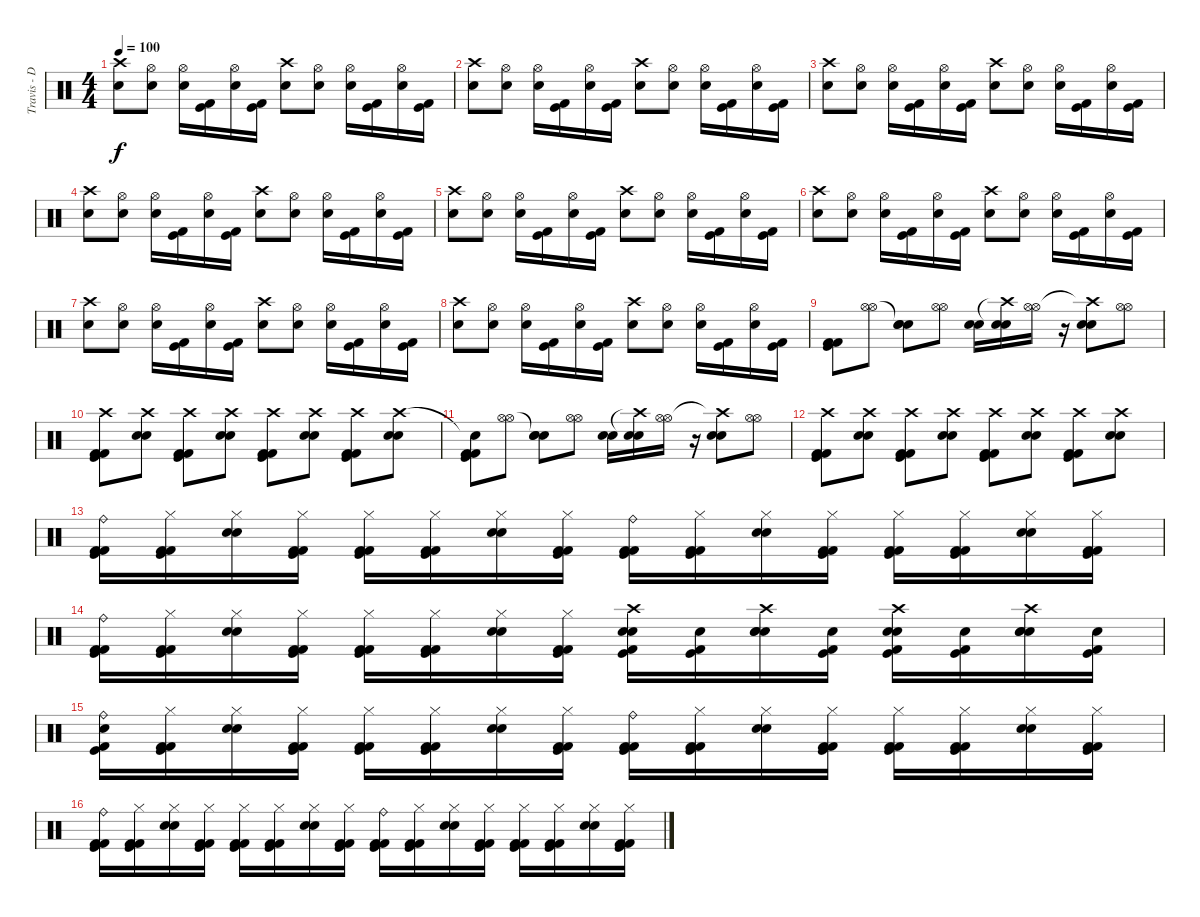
\track ("Travis - Drums {Tabbed by Peter B.}" "Travis - D") {instrument percussion}
\staff {score}
\articulation defaults
\ts (4 4)
\tempo 100
\clef neutral
\ks c
("Crash high (hit)" "Electric Snare (hit)").8{dy f} ("Hi-Hat (open)" "Electric Snare (hit)").8 ("Hi-Hat (open)" "Electric Snare (hit)").16 ("Kick (hit)" "Kick (hit) 2").16 ("Hi-Hat (open)" "Electric Snare (hit)").16 ("Kick (hit)" "Kick (hit) 2").16 ("Crash high (hit)" "Electric Snare (hit)").8 ("Hi-Hat (open)" "Electric Snare (hit)").8 ("Hi-Hat (open)" "Electric Snare (hit)").16 ("Kick (hit)" "Kick (hit) 2").16 ("Hi-Hat (open)" "Electric Snare (hit)").16 ("Kick (hit)" "Kick (hit) 2").16 |
("Crash high (hit)" "Electric Snare (hit)").8 ("Hi-Hat (open)" "Electric Snare (hit)").8 ("Hi-Hat (open)" "Electric Snare (hit)").16 ("Kick (hit)" "Kick (hit) 2").16 ("Hi-Hat (open)" "Electric Snare (hit)").16 ("Kick (hit)" "Kick (hit) 2").16 ("Crash high (hit)" "Electric Snare (hit)").8 ("Hi-Hat (open)" "Electric Snare (hit)").8 ("Hi-Hat (open)" "Electric Snare (hit)").16 ("Kick (hit)" "Kick (hit) 2").16 ("Hi-Hat (open)" "Electric Snare (hit)").16 ("Kick (hit)" "Kick (hit) 2").16 |
("Crash high (hit)" "Electric Snare (hit)").8 ("Hi-Hat (open)" "Electric Snare (hit)").8 ("Hi-Hat (open)" "Electric Snare (hit)").16 ("Kick (hit)" "Kick (hit) 2").16 ("Hi-Hat (open)" "Electric Snare (hit)").16 ("Kick (hit)" "Kick (hit) 2").16 ("Crash high (hit)" "Electric Snare (hit)").8 ("Hi-Hat (open)" "Electric Snare (hit)").8 ("Hi-Hat (open)" "Electric Snare (hit)").16 ("Kick (hit)" "Kick (hit) 2").16 ("Hi-Hat (open)" "Electric Snare (hit)").16 ("Kick (hit)" "Kick (hit) 2").16 |
("Crash high (hit)" "Electric Snare (hit)").8 ("Hi-Hat (open)" "Electric Snare (hit)").8 ("Hi-Hat (open)" "Electric Snare (hit)").16 ("Kick (hit)" "Kick (hit) 2").16 ("Hi-Hat (open)" "Electric Snare (hit)").16 ("Kick (hit)" "Kick (hit) 2").16 ("Crash high (hit)" "Electric Snare (hit)").8 ("Hi-Hat (open)" "Electric Snare (hit)").8 ("Hi-Hat (open)" "Electric Snare (hit)").16 ("Kick (hit)" "Kick (hit) 2").16 ("Hi-Hat (open)" "Electric Snare (hit)").16 ("Kick (hit)" "Kick (hit) 2").16 |
("Crash high (hit)" "Electric Snare (hit)").8 ("Hi-Hat (open)" "Electric Snare (hit)").8 ("Hi-Hat (open)" "Electric Snare (hit)").16 ("Kick (hit)" "Kick (hit) 2").16 ("Hi-Hat (open)" "Electric Snare (hit)").16 ("Kick (hit)" "Kick (hit) 2").16 ("Crash high (hit)" "Electric Snare (hit)").8 ("Hi-Hat (open)" "Electric Snare (hit)").8 ("Hi-Hat (open)" "Electric Snare (hit)").16 ("Kick (hit)" "Kick (hit) 2").16 ("Hi-Hat (open)" "Electric Snare (hit)").16 ("Kick (hit)" "Kick (hit) 2").16 |
("Crash high (hit)" "Electric Snare (hit)").8 ("Hi-Hat (open)" "Electric Snare (hit)").8 ("Hi-Hat (open)" "Electric Snare (hit)").16 ("Kick (hit)" "Kick (hit) 2").16 ("Hi-Hat (open)" "Electric Snare (hit)").16 ("Kick (hit)" "Kick (hit) 2").16 ("Crash high (hit)" "Electric Snare (hit)").8 ("Hi-Hat (open)" "Electric Snare (hit)").8 ("Hi-Hat (open)" "Electric Snare (hit)").16 ("Kick (hit)" "Kick (hit) 2").16 ("Hi-Hat (open)" "Electric Snare (hit)").16 ("Kick (hit)" "Kick (hit) 2").16 |
("Crash high (hit)" "Electric Snare (hit)").8 ("Hi-Hat (open)" "Electric Snare (hit)").8 ("Hi-Hat (open)" "Electric Snare (hit)").16 ("Kick (hit)" "Kick (hit) 2").16 ("Hi-Hat (open)" "Electric Snare (hit)").16 ("Kick (hit)" "Kick (hit) 2").16 ("Crash high (hit)" "Electric Snare (hit)").8 ("Hi-Hat (open)" "Electric Snare (hit)").8 ("Hi-Hat (open)" "Electric Snare (hit)").16 ("Kick (hit)" "Kick (hit) 2").16 ("Hi-Hat (open)" "Electric Snare (hit)").16 ("Kick (hit)" "Kick (hit) 2").16 |
("Crash high (hit)" "Electric Snare (hit)").8 ("Hi-Hat (open)" "Electric Snare (hit)").8 ("Hi-Hat (open)" "Electric Snare (hit)").16 ("Kick (hit)" "Kick (hit) 2").16 ("Hi-Hat (open)" "Electric Snare (hit)").16 ("Kick (hit)" "Kick (hit) 2").16 ("Crash high (hit)" "Electric Snare (hit)").8 ("Hi-Hat (open)" "Electric Snare (hit)").8 ("Hi-Hat (open)" "Electric Snare (hit)").16 ("Kick (hit)" "Kick (hit) 2").16 ("Hi-Hat (open)" "Electric Snare (hit)").16 ("Kick (hit)" "Kick (hit) 2").16 |
("Kick (hit) 2" "Kick (hit)" "Kick (hit) 2").8 ("Hi-Hat (open)" "Hi-Hat (open)").8 ("Snare (hit)"{t} "Snare (hit) 2" "Electric Snare (hit)").8 ("Hi-Hat (open)" "Hi-Hat (open)").8 ("Snare (hit) 2" "Electric Snare (hit)").16 ("Crash high (hit)"{t} "Snare (hit) 2" "Electric Snare (hit)").16 ("Hi-Hat (open)" "Hi-Hat (open)").16 r.16 ("Crash high (hit)"{t} "Snare (hit) 2" "Electric Snare (hit)").8 ("Hi-Hat (open)" "Hi-Hat (open)").8 |
("Crash high (hit)" "Kick (hit) 2" "Kick (hit)" "Kick (hit) 2").8 ("Crash high (hit)" "Snare (hit) 2" "Electric Snare (hit)").8 ("Crash high (hit)" "Kick (hit) 2" "Kick (hit)" "Kick (hit) 2").8 ("Crash high (hit)" "Snare (hit) 2" "Electric Snare (hit)").8 ("Crash high (hit)" "Kick (hit) 2" "Kick (hit)" "Kick (hit) 2").8 ("Crash high (hit)" "Snare (hit) 2" "Electric Snare (hit)").8 ("Crash high (hit)" "Kick (hit) 2" "Kick (hit)" "Kick (hit) 2").8 ("Crash high (hit)" "Snare (hit) 2" "Electric Snare (hit)").8 |
("Snare (hit)"{t} "Kick (hit) 2" "Kick (hit)" "Kick (hit) 2").8 ("Hi-Hat (open)" "Hi-Hat (open)").8 ("Snare (hit)"{t} "Snare (hit) 2" "Electric Snare (hit)").8 ("Hi-Hat (open)" "Hi-Hat (open)").8 ("Snare (hit) 2" "Electric Snare (hit)").16 ("Crash high (hit)"{t} "Snare (hit) 2" "Electric Snare (hit)").16 ("Hi-Hat (open)" "Hi-Hat (open)").16 r.16 ("Crash high (hit)"{t} "Snare (hit) 2" "Electric Snare (hit)").8 ("Hi-Hat (open)" "Hi-Hat (open)").8 |
("Crash high (hit)" "Kick (hit) 2" "Kick (hit)" "Kick (hit) 2").8 ("Crash high (hit)" "Snare (hit) 2" "Electric Snare (hit)").8 ("Crash high (hit)" "Kick (hit) 2" "Kick (hit)" "Kick (hit) 2").8 ("Crash high (hit)" "Snare (hit) 2" "Electric Snare (hit)").8 ("Crash high (hit)" "Kick (hit) 2" "Kick (hit)" "Kick (hit) 2").8 ("Crash high (hit)" "Snare (hit) 2" "Electric Snare (hit)").8 ("Crash high (hit)" "Kick (hit) 2" "Kick (hit)" "Kick (hit) 2").8 ("Crash high (hit)" "Snare (hit) 2" "Electric Snare (hit)").8 |
("Ride (bell)" "Kick (hit) 2" "Kick (hit)" "Kick (hit) 2").16 ("Hi-Hat (closed)" "Kick (hit) 2" "Kick (hit)" "Kick (hit) 2").16 ("Hi-Hat (closed)" "Electric Snare (hit)" "Snare (hit) 2").16 ("Hi-Hat (closed)" "Kick (hit) 2" "Kick (hit)" "Kick (hit) 2").16 ("Hi-Hat (closed)" "Kick (hit) 2" "Kick (hit)" "Kick (hit) 2").16 ("Hi-Hat (closed)" "Kick (hit) 2" "Kick (hit)" "Kick (hit) 2").16 ("Hi-Hat (closed)" "Electric Snare (hit)" "Snare (hit) 2").16 ("Hi-Hat (closed)" "Kick (hit) 2" "Kick (hit)" "Kick (hit) 2").16 ("Ride (bell)" "Kick (hit) 2" "Kick (hit)" "Kick (hit) 2").16 ("Hi-Hat (closed)" "Kick (hit) 2" "Kick (hit)" "Kick (hit) 2").16 ("Hi-Hat (closed)" "Electric Snare (hit)" "Snare (hit) 2").16 ("Hi-Hat (closed)" "Kick (hit) 2" "Kick (hit)" "Kick (hit) 2").16 ("Hi-Hat (closed)" "Kick (hit) 2" "Kick (hit)" "Kick (hit) 2").16 ("Hi-Hat (closed)" "Kick (hit) 2" "Kick (hit)" "Kick (hit) 2").16 ("Hi-Hat (closed)" "Electric Snare (hit)" "Snare (hit) 2").16 ("Hi-Hat (closed)" "Kick (hit) 2" "Kick (hit)" "Kick (hit) 2").16 |
("Ride (bell)" "Kick (hit) 2" "Kick (hit)" "Kick (hit) 2").16 ("Hi-Hat (closed)" "Kick (hit) 2" "Kick (hit)" "Kick (hit) 2").16 ("Hi-Hat (closed)" "Electric Snare (hit)" "Snare (hit) 2").16 ("Hi-Hat (closed)" "Kick (hit) 2" "Kick (hit)" "Kick (hit) 2").16 ("Hi-Hat (closed)" "Kick (hit) 2" "Kick (hit)" "Kick (hit) 2").16 ("Hi-Hat (closed)" "Kick (hit) 2" "Kick (hit)" "Kick (hit) 2").16 ("Hi-Hat (closed)" "Electric Snare (hit)" "Snare (hit) 2").16 ("Hi-Hat (closed)" "Kick (hit) 2" "Kick (hit)" "Kick (hit) 2").16 ("Crash high (hit)" "Snare (hit) 2" "Electric Snare (hit)" "Kick (hit)" "Kick (hit) 2").16 ("Electric Snare (hit)" "Kick (hit)" "Kick (hit) 2").16 ("Crash high (hit)" "Snare (hit) 2" "Electric Snare (hit)" "Snare (hit) 2").16 ("Electric Snare (hit)" "Kick (hit)" "Kick (hit) 2").16 ("Crash high (hit)" "Snare (hit) 2" "Electric Snare (hit)" "Kick (hit)" "Kick (hit) 2").16 ("Electric Snare (hit)" "Kick (hit)" "Kick (hit) 2").16 ("Crash high (hit)" "Snare (hit) 2" "Electric Snare (hit)" "Snare (hit) 2").16 ("Electric Snare (hit)" "Kick (hit)" "Kick (hit) 2").16 |
("Ride (bell)" "Electric Snare (hit)" "Kick (hit)" "Kick (hit) 2").16 ("Hi-Hat (closed)" "Kick (hit) 2" "Kick (hit)" "Kick (hit) 2").16 ("Hi-Hat (closed)" "Electric Snare (hit)" "Snare (hit) 2").16 ("Hi-Hat (closed)" "Kick (hit) 2" "Kick (hit)" "Kick (hit) 2").16 ("Hi-Hat (closed)" "Kick (hit) 2" "Kick (hit)" "Kick (hit) 2").16 ("Hi-Hat (closed)" "Kick (hit) 2" "Kick (hit)" "Kick (hit) 2").16 ("Hi-Hat (closed)" "Electric Snare (hit)" "Snare (hit) 2").16 ("Hi-Hat (closed)" "Kick (hit) 2" "Kick (hit)" "Kick (hit) 2").16 ("Ride (bell)" "Kick (hit) 2" "Kick (hit)" "Kick (hit) 2").16 ("Hi-Hat (closed)" "Kick (hit) 2" "Kick (hit)" "Kick (hit) 2").16 ("Hi-Hat (closed)" "Electric Snare (hit)" "Snare (hit) 2").16 ("Hi-Hat (closed)" "Kick (hit) 2" "Kick (hit)" "Kick (hit) 2").16 ("Hi-Hat (closed)" "Kick (hit) 2" "Kick (hit)" "Kick (hit) 2").16 ("Hi-Hat (closed)" "Kick (hit) 2" "Kick (hit)" "Kick (hit) 2").16 ("Hi-Hat (closed)" "Electric Snare (hit)" "Snare (hit) 2").16 ("Hi-Hat (closed)" "Kick (hit) 2" "Kick (hit)" "Kick (hit) 2").16 |
("Ride (bell)" "Kick (hit) 2" "Kick (hit)" "Kick (hit) 2").16 ("Hi-Hat (closed)" "Kick (hit) 2" "Kick (hit)" "Kick (hit) 2").16 ("Hi-Hat (closed)" "Electric Snare (hit)" "Snare (hit) 2").16 ("Hi-Hat (closed)" "Kick (hit) 2" "Kick (hit)" "Kick (hit) 2").16 ("Hi-Hat (closed)" "Kick (hit) 2" "Kick (hit)" "Kick (hit) 2").16 ("Hi-Hat (closed)" "Kick (hit) 2" "Kick (hit)" "Kick (hit) 2").16 ("Hi-Hat (closed)" "Electric Snare (hit)" "Snare (hit) 2").16 ("Hi-Hat (closed)" "Kick (hit) 2" "Kick (hit)" "Kick (hit) 2").16 ("Ride (bell)" "Kick (hit) 2" "Kick (hit)" "Kick (hit) 2").16 ("Hi-Hat (closed)" "Kick (hit) 2" "Kick (hit)" "Kick (hit) 2").16 ("Hi-Hat (closed)" "Electric Snare (hit)" "Snare (hit) 2").16 ("Hi-Hat (closed)" "Kick (hit) 2" "Kick (hit)" "Kick (hit) 2").16 ("Hi-Hat (closed)" "Kick (hit) 2" "Kick (hit)" "Kick (hit) 2").16 ("Hi-Hat (closed)" "Kick (hit) 2" "Kick (hit)" "Kick (hit) 2").16 ("Hi-Hat (closed)" "Electric Snare (hit)" "Snare (hit) 2").16 ("Hi-Hat (closed)" "Kick (hit) 2" "Kick (hit)" "Kick (hit) 2").16
